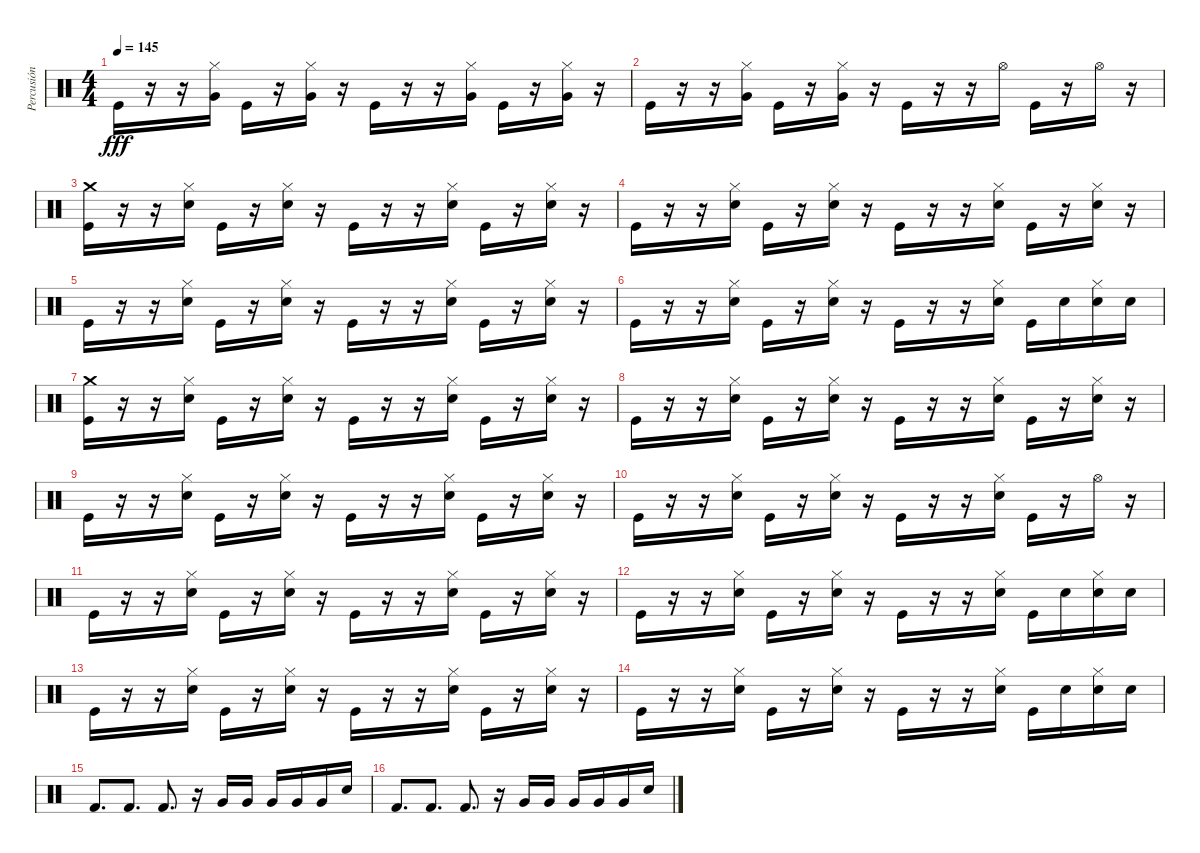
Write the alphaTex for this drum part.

\track ("Percusión" "Percusión") {instrument percussion}
\staff {score}
\articulation defaults
\ts (4 4)
\tempo 145
\clef neutral
\ks c "Kick (hit)".16{dy fff}
r.16 r.16 ("Hi-Hat (closed)" "Very Low Tom (hit)").16 "Kick (hit)".16 r.16 ("Hi-Hat (closed)" "Very Low Tom (hit)").16 r.16 "Kick (hit)".16 r.16 r.16 ("Hi-Hat (closed)" "Very Low Tom (hit)").16 "Kick (hit)".16 r.16 ("Hi-Hat (closed)" "Very Low Tom (hit)").16 r.16 |
"Kick (hit)".16 r.16 r.16 ("Hi-Hat (closed)" "Very Low Tom (hit)").16 "Kick (hit)".16 r.16 ("Hi-Hat (closed)" "Very Low Tom (hit)").16 r.16 "Kick (hit)".16 r.16 r.16 "Hi-Hat (open)".16 "Kick (hit)".16 r.16 "Hi-Hat (open)".16 r.16 |
("Crash medium (hit)" "Kick (hit)").16 r.16 r.16 ("Hi-Hat (closed)" "Electric Snare (hit)").16 "Kick (hit)".16 r.16 ("Hi-Hat (closed)" "Electric Snare (hit)").16 r.16 "Kick (hit)".16 r.16 r.16 ("Hi-Hat (closed)" "Electric Snare (hit)").16 "Kick (hit)".16 r.16 ("Hi-Hat (closed)" "Electric Snare (hit)").16 r.16 |
"Kick (hit)".16 r.16 r.16 ("Hi-Hat (closed)" "Electric Snare (hit)").16 "Kick (hit)".16 r.16 ("Hi-Hat (closed)" "Electric Snare (hit)").16 r.16 "Kick (hit)".16 r.16 r.16 ("Hi-Hat (closed)" "Electric Snare (hit)").16 "Kick (hit)".16 r.16 ("Hi-Hat (closed)" "Electric Snare (hit)").16 r.16 |
"Kick (hit)".16 r.16 r.16 ("Hi-Hat (closed)" "Electric Snare (hit)").16 "Kick (hit)".16 r.16 ("Hi-Hat (closed)" "Electric Snare (hit)").16 r.16 "Kick (hit)".16 r.16 r.16 ("Hi-Hat (closed)" "Electric Snare (hit)").16 "Kick (hit)".16 r.16 ("Hi-Hat (closed)" "Electric Snare (hit)").16 r.16 |
"Kick (hit)".16 r.16 r.16 ("Hi-Hat (closed)" "Electric Snare (hit)").16 "Kick (hit)".16 r.16 ("Hi-Hat (closed)" "Electric Snare (hit)").16 r.16 "Kick (hit)".16 r.16 r.16 ("Hi-Hat (closed)" "Electric Snare (hit)").16 "Kick (hit)".16 "Electric Snare (hit)".16 ("Hi-Hat (closed)" "Electric Snare (hit)").16 "Electric Snare (hit)".16 |
("Crash medium (hit)" "Kick (hit)").16 r.16 r.16 ("Hi-Hat (closed)" "Electric Snare (hit)").16 "Kick (hit)".16 r.16 ("Hi-Hat (closed)" "Electric Snare (hit)").16 r.16 "Kick (hit)".16 r.16 r.16 ("Hi-Hat (closed)" "Electric Snare (hit)").16 "Kick (hit)".16 r.16 ("Hi-Hat (closed)" "Electric Snare (hit)").16 r.16 |
"Kick (hit)".16 r.16 r.16 ("Hi-Hat (closed)" "Electric Snare (hit)").16 "Kick (hit)".16 r.16 ("Hi-Hat (closed)" "Electric Snare (hit)").16 r.16 "Kick (hit)".16 r.16 r.16 ("Hi-Hat (closed)" "Electric Snare (hit)").16 "Kick (hit)".16 r.16 ("Hi-Hat (closed)" "Electric Snare (hit)").16 r.16 |
"Kick (hit)".16 r.16 r.16 ("Hi-Hat (closed)" "Electric Snare (hit)").16 "Kick (hit)".16 r.16 ("Hi-Hat (closed)" "Electric Snare (hit)").16 r.16 "Kick (hit)".16 r.16 r.16 ("Hi-Hat (closed)" "Electric Snare (hit)").16 "Kick (hit)".16 r.16 ("Hi-Hat (closed)" "Electric Snare (hit)").16 r.16 |
"Kick (hit)".16 r.16 r.16 ("Hi-Hat (closed)" "Electric Snare (hit)").16 "Kick (hit)".16 r.16 ("Hi-Hat (closed)" "Electric Snare (hit)").16 r.16 "Kick (hit)".16 r.16 r.16 ("Hi-Hat (closed)" "Electric Snare (hit)").16 "Kick (hit)".16 r.16 "Hi-Hat (open)".16 r.16 |
"Kick (hit)".16 r.16 r.16 ("Hi-Hat (closed)" "Electric Snare (hit)").16 "Kick (hit)".16 r.16 ("Hi-Hat (closed)" "Electric Snare (hit)").16 r.16 "Kick (hit)".16 r.16 r.16 ("Hi-Hat (closed)" "Electric Snare (hit)").16 "Kick (hit)".16 r.16 ("Hi-Hat (closed)" "Electric Snare (hit)").16 r.16 |
"Kick (hit)".16 r.16 r.16 ("Hi-Hat (closed)" "Electric Snare (hit)").16 "Kick (hit)".16 r.16 ("Hi-Hat (closed)" "Electric Snare (hit)").16 r.16 "Kick (hit)".16 r.16 r.16 ("Hi-Hat (closed)" "Electric Snare (hit)").16 "Kick (hit)".16 "Electric Snare (hit)".16 ("Hi-Hat (closed)" "Electric Snare (hit)").16 "Electric Snare (hit)".16 |
"Kick (hit)".16 r.16 r.16 ("Hi-Hat (closed)" "Electric Snare (hit)").16 "Kick (hit)".16 r.16 ("Hi-Hat (closed)" "Electric Snare (hit)").16 r.16 "Kick (hit)".16 r.16 r.16 ("Hi-Hat (closed)" "Electric Snare (hit)").16 "Kick (hit)".16 r.16 ("Hi-Hat (closed)" "Electric Snare (hit)").16 r.16 |
"Kick (hit)".16 r.16 r.16 ("Hi-Hat (closed)" "Electric Snare (hit)").16 "Kick (hit)".16 r.16 ("Hi-Hat (closed)" "Electric Snare (hit)").16 r.16 "Kick (hit)".16 r.16 r.16 ("Hi-Hat (closed)" "Electric Snare (hit)").16 "Kick (hit)".16 "Electric Snare (hit)".16 ("Hi-Hat (closed)" "Electric Snare (hit)").16 "Electric Snare (hit)".16 |
"Kick (hit) 2".8{d} "Kick (hit) 2".8{d} "Kick (hit) 2".8{d} r.16 "Very Low Tom (hit)".16 "Very Low Tom (hit)".16 "Very Low Tom (hit)".16 "Very Low Tom (hit)".16 "Very Low Tom (hit)".16 "Electric Snare (hit)".16 |
"Kick (hit) 2".8{d} "Kick (hit) 2".8{d} "Kick (hit) 2".8{d} r.16 "Very Low Tom (hit)".16 "Very Low Tom (hit)".16 "Very Low Tom (hit)".16 "Very Low Tom (hit)".16 "Very Low Tom (hit)".16 "Electric Snare (hit)".16
